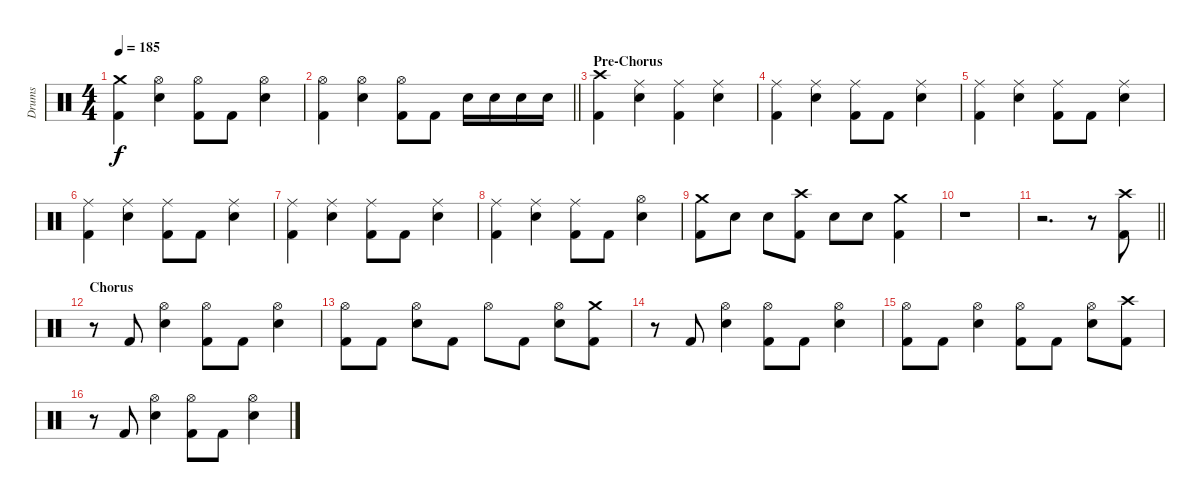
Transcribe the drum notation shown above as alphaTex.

\track ("Drums" "Drums") {instrument percussion}
\staff {score}
\articulation defaults
\ts (4 4)
\tempo 185
\clef neutral
\ks c
("Crash medium (hit)" "Kick (hit) 2").4{dy f} ("Hi-Hat (open)" "Snare (hit) 2").4 ("Hi-Hat (open)" "Kick (hit) 2").8 "Kick (hit) 2".8 ("Hi-Hat (open)" "Snare (hit) 2").4 |
\barLineRight lightlight
("Hi-Hat (open)" "Kick (hit) 2").4 ("Hi-Hat (open)" "Snare (hit) 2").4 ("Hi-Hat (open)" "Kick (hit) 2").8 "Kick (hit) 2".8 "Snare (hit) 2".16 "Snare (hit) 2".16 "Snare (hit) 2".16 "Snare (hit) 2".16 |
\section ("" "Pre-Chorus")
("Crash high (hit)" "Kick (hit) 2").4 ("Ride (middle)" "Snare (hit) 2").4 ("Ride (middle)" "Kick (hit) 2").4 ("Ride (middle)" "Snare (hit) 2").4 |
("Ride (middle)" "Kick (hit) 2").4 ("Ride (middle)" "Snare (hit) 2").4 ("Ride (middle)" "Kick (hit) 2").8 "Kick (hit) 2".8 ("Ride (middle)" "Snare (hit) 2").4 |
("Ride (middle)" "Kick (hit) 2").4 ("Ride (middle)" "Snare (hit) 2").4 ("Ride (middle)" "Kick (hit) 2").8 "Kick (hit) 2".8 ("Ride (middle)" "Snare (hit) 2").4 |
("Ride (middle)" "Kick (hit) 2").4 ("Ride (middle)" "Snare (hit) 2").4 ("Ride (middle)" "Kick (hit) 2").8 "Kick (hit) 2".8 ("Ride (middle)" "Snare (hit) 2").4 |
("Ride (middle)" "Kick (hit) 2").4 ("Ride (middle)" "Snare (hit) 2").4 ("Ride (middle)" "Kick (hit) 2").8 "Kick (hit) 2".8 ("Ride (middle)" "Snare (hit) 2").4 |
("Ride (middle)" "Kick (hit) 2").4 ("Ride (middle)" "Snare (hit) 2").4 ("Ride (middle)" "Kick (hit) 2").8 "Kick (hit) 2".8 ("Hi-Hat (open)" "Snare (hit) 2").4 |
("Crash medium (hit)" "Kick (hit) 2").8 "Snare (hit) 2".8 "Snare (hit) 2".8 ("Crash high (hit)" "Kick (hit) 2").8 "Snare (hit) 2".8 "Snare (hit) 2".8 ("Crash medium (hit)" "Kick (hit) 2").4 |
r.1 |
\barLineRight lightlight
r.2{d} r.8 ("Crash high (hit)" "Kick (hit) 2").8 |
\section ("" "Chorus")
r.8 "Kick (hit) 2".8 ("Hi-Hat (open)" "Snare (hit) 2").4 ("Hi-Hat (open)" "Kick (hit) 2").8 "Kick (hit) 2".8 ("Hi-Hat (open)" "Snare (hit) 2").4 |
("Hi-Hat (open)" "Kick (hit) 2").8 "Kick (hit) 2".8 ("Hi-Hat (open)" "Snare (hit) 2").8 "Kick (hit) 2".8 "Hi-Hat (open)".8 "Kick (hit) 2".8 ("Hi-Hat (open)" "Snare (hit) 2").8 ("Crash medium (hit)" "Kick (hit) 2").8 |
r.8 "Kick (hit) 2".8 ("Hi-Hat (open)" "Snare (hit) 2").4 ("Hi-Hat (open)" "Kick (hit) 2").8 "Kick (hit) 2".8 ("Hi-Hat (open)" "Snare (hit) 2").4 |
("Hi-Hat (open)" "Kick (hit) 2").8 "Kick (hit) 2".8 ("Hi-Hat (open)" "Snare (hit) 2").4 ("Hi-Hat (open)" "Kick (hit) 2").8 "Kick (hit) 2".8 ("Hi-Hat (open)" "Snare (hit) 2").8 ("Crash high (hit)" "Kick (hit) 2").8 |
r.8 "Kick (hit) 2".8 ("Hi-Hat (open)" "Snare (hit) 2").4 ("Hi-Hat (open)" "Kick (hit) 2").8 "Kick (hit) 2".8 ("Hi-Hat (open)" "Snare (hit) 2").4
